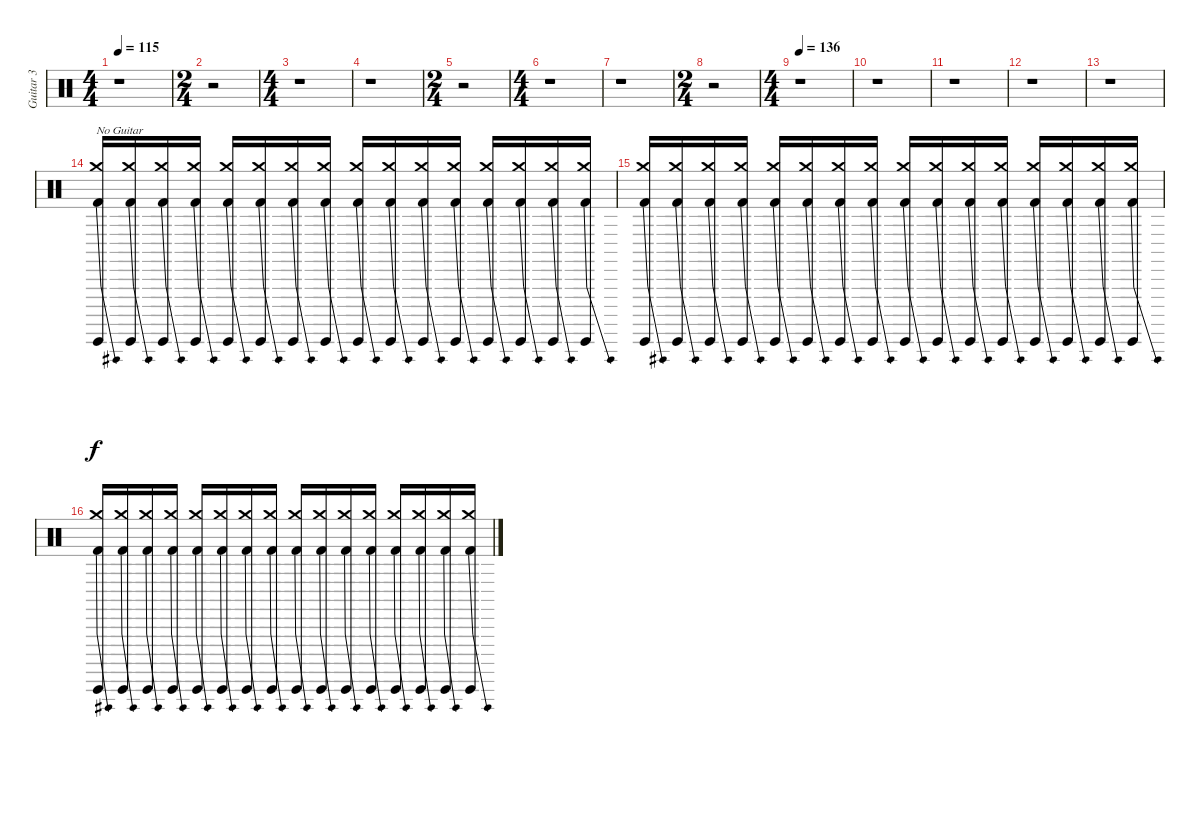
\track ("Guitar 3" "Guitar 3") {instrument percussion}
\staff {score}
\articulation defaults
\ts (4 4)
\tempo 115
\clef neutral
\ks c
r.1{dy f} |
\ts (2 4)
r.2 |
\ts (4 4)
r.1 |
r.1 |
\ts (2 4)
r.2 |
\ts (4 4)
r.1 |
r.1 |
\ts (2 4)
r.2 |
\ts (4 4)
\tempo 136
r.1 |
r.1 |
r.1 |
r.1 |
r.1 |
("Kick (hit) 2"{be (bend 0 0 60 12)} "Crash medium (hit)" "Guiro (hit)").16{txt "No Guitar" volume 5 balance 8} ("Kick (hit) 2"{be (bend 0 0 60 12)} "Crash medium (hit)" "Guiro (hit)").16 ("Kick (hit) 2"{be (bend 0 0 60 12)} "Crash medium (hit)" "Guiro (hit)").16 ("Kick (hit) 2"{be (bend 0 0 60 12)} "Crash medium (hit)" "Guiro (hit)").16 ("Kick (hit) 2"{be (bend 0 0 60 12)} "Crash medium (hit)" "Guiro (hit)").16 ("Kick (hit) 2"{be (bend 0 0 60 12)} "Crash medium (hit)" "Guiro (hit)").16 ("Kick (hit) 2"{be (bend 0 0 60 12)} "Crash medium (hit)" "Guiro (hit)").16 ("Kick (hit) 2"{be (bend 0 0 60 12)} "Crash medium (hit)" "Guiro (hit)").16 ("Kick (hit) 2"{be (bend 0 0 60 12)} "Crash medium (hit)" "Guiro (hit)").16 ("Kick (hit) 2"{be (bend 0 0 60 12)} "Crash medium (hit)" "Guiro (hit)").16 ("Kick (hit) 2"{be (bend 0 0 60 12)} "Crash medium (hit)" "Guiro (hit)").16 ("Kick (hit) 2"{be (bend 0 0 60 12)} "Crash medium (hit)" "Guiro (hit)").16 ("Kick (hit) 2"{be (bend 0 0 60 12)} "Crash medium (hit)" "Guiro (hit)").16 ("Kick (hit) 2"{be (bend 0 0 60 12)} "Crash medium (hit)" "Guiro (hit)").16 ("Kick (hit) 2"{be (bend 0 0 60 12)} "Crash medium (hit)" "Guiro (hit)").16 ("Kick (hit) 2"{be (bend 0 0 60 12)} "Crash medium (hit)" "Guiro (hit)").16 |
("Kick (hit) 2"{be (bend 0 0 60 12)} "Crash medium (hit)" "Guiro (hit)").16 ("Kick (hit) 2"{be (bend 0 0 60 12)} "Crash medium (hit)" "Guiro (hit)").16 ("Kick (hit) 2"{be (bend 0 0 60 12)} "Crash medium (hit)" "Guiro (hit)").16 ("Kick (hit) 2"{be (bend 0 0 60 12)} "Crash medium (hit)" "Guiro (hit)").16 ("Kick (hit) 2"{be (bend 0 0 60 12)} "Crash medium (hit)" "Guiro (hit)").16 ("Kick (hit) 2"{be (bend 0 0 60 12)} "Crash medium (hit)" "Guiro (hit)").16 ("Kick (hit) 2"{be (bend 0 0 60 12)} "Crash medium (hit)" "Guiro (hit)").16 ("Kick (hit) 2"{be (bend 0 0 60 12)} "Crash medium (hit)" "Guiro (hit)").16 ("Kick (hit) 2"{be (bend 0 0 60 12)} "Crash medium (hit)" "Guiro (hit)").16 ("Kick (hit) 2"{be (bend 0 0 60 12)} "Crash medium (hit)" "Guiro (hit)").16 ("Kick (hit) 2"{be (bend 0 0 60 12)} "Crash medium (hit)" "Guiro (hit)").16 ("Kick (hit) 2"{be (bend 0 0 60 12)} "Crash medium (hit)" "Guiro (hit)").16 ("Kick (hit) 2"{be (bend 0 0 60 12)} "Crash medium (hit)" "Guiro (hit)").16 ("Kick (hit) 2"{be (bend 0 0 60 12)} "Crash medium (hit)" "Guiro (hit)").16 ("Kick (hit) 2"{be (bend 0 0 60 12)} "Crash medium (hit)" "Guiro (hit)").16 ("Kick (hit) 2"{be (bend 0 0 60 12)} "Crash medium (hit)" "Guiro (hit)").16 |
("Kick (hit) 2"{be (bend 0 0 60 12)} "Crash medium (hit)" "Guiro (hit)").16 ("Kick (hit) 2"{be (bend 0 0 60 12)} "Crash medium (hit)" "Guiro (hit)").16 ("Kick (hit) 2"{be (bend 0 0 60 12)} "Crash medium (hit)" "Guiro (hit)").16 ("Kick (hit) 2"{be (bend 0 0 60 12)} "Crash medium (hit)" "Guiro (hit)").16 ("Kick (hit) 2"{be (bend 0 0 60 12)} "Crash medium (hit)" "Guiro (hit)").16 ("Kick (hit) 2"{be (bend 0 0 60 12)} "Crash medium (hit)" "Guiro (hit)").16 ("Kick (hit) 2"{be (bend 0 0 60 12)} "Crash medium (hit)" "Guiro (hit)").16 ("Kick (hit) 2"{be (bend 0 0 60 12)} "Crash medium (hit)" "Guiro (hit)").16 ("Kick (hit) 2"{be (bend 0 0 60 12)} "Crash medium (hit)" "Guiro (hit)").16 ("Kick (hit) 2"{be (bend 0 0 60 12)} "Crash medium (hit)" "Guiro (hit)").16 ("Kick (hit) 2"{be (bend 0 0 60 12)} "Crash medium (hit)" "Guiro (hit)").16 ("Kick (hit) 2"{be (bend 0 0 60 12)} "Crash medium (hit)" "Guiro (hit)").16 ("Kick (hit) 2"{be (bend 0 0 60 12)} "Crash medium (hit)" "Guiro (hit)").16 ("Kick (hit) 2"{be (bend 0 0 60 12)} "Crash medium (hit)" "Guiro (hit)").16 ("Kick (hit) 2"{be (bend 0 0 60 12)} "Crash medium (hit)" "Guiro (hit)").16 ("Kick (hit) 2"{be (bend 0 0 60 12)} "Crash medium (hit)" "Guiro (hit)").16
